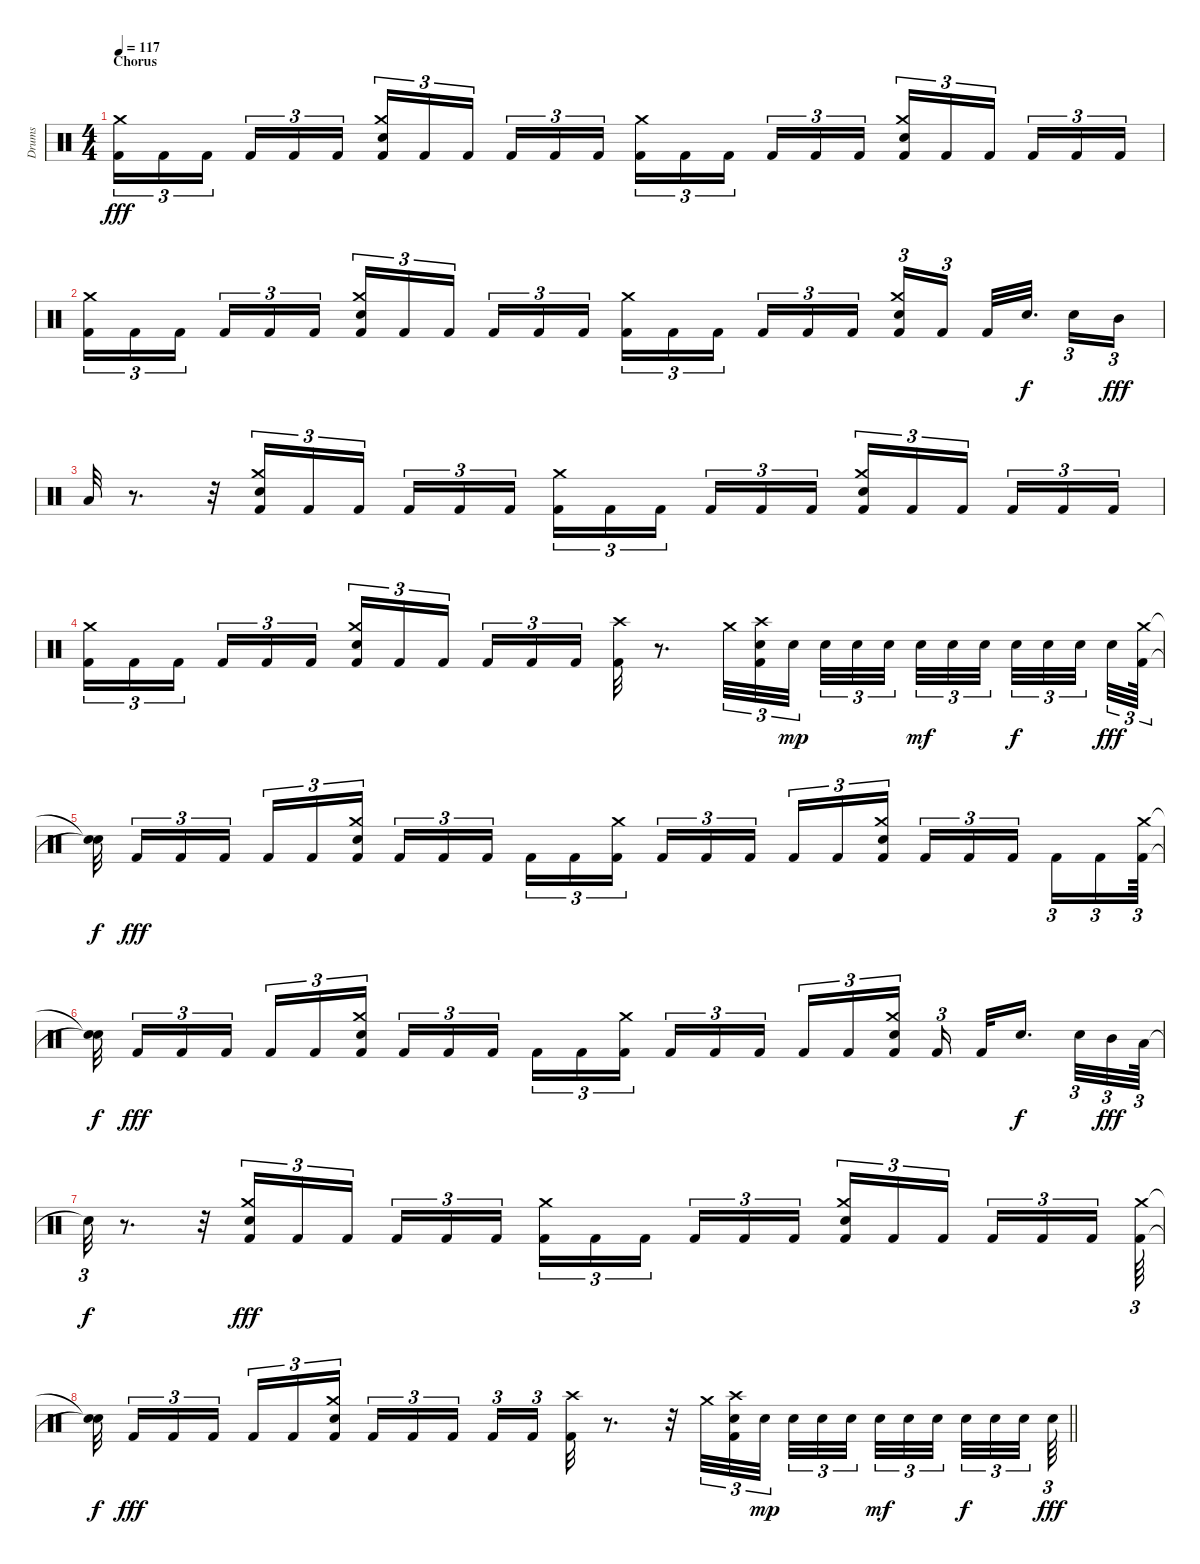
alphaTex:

\track ("Drums" "Drums") {instrument percussion}
\staff {score}
\articulation defaults
\ts (4 4)
\section ("" "Chorus")
\tempo 117
\clef neutral
\ks c
("Kick (hit) 2" "Crash medium (hit)").16{tu (3 2) dy fff} "Kick (hit) 2".16{tu (3 2)} "Kick (hit) 2".16{tu (3 2) beam splitsecondary} "Kick (hit) 2".16{tu (3 2)} "Kick (hit) 2".16{tu (3 2)} "Kick (hit) 2".16{tu (3 2)} ("Kick (hit) 2" "Crash medium (hit)" "Snare (hit) 2").16{tu (3 2)} "Kick (hit) 2".16{tu (3 2)} "Kick (hit) 2".16{tu (3 2) beam splitsecondary} "Kick (hit) 2".16{tu (3 2)} "Kick (hit) 2".16{tu (3 2)} "Kick (hit) 2".16{tu (3 2)} ("Kick (hit) 2" "Crash medium (hit)").16{tu (3 2)} "Kick (hit) 2".16{tu (3 2)} "Kick (hit) 2".16{tu (3 2) beam splitsecondary} "Kick (hit) 2".16{tu (3 2)} "Kick (hit) 2".16{tu (3 2)} "Kick (hit) 2".16{tu (3 2)} ("Kick (hit) 2" "Crash medium (hit)" "Snare (hit) 2").16{tu (3 2)} "Kick (hit) 2".16{tu (3 2)} "Kick (hit) 2".16{tu (3 2) beam splitsecondary} "Kick (hit) 2".16{tu (3 2)} "Kick (hit) 2".16{tu (3 2)} "Kick (hit) 2".16{tu (3 2)} |
("Kick (hit) 2" "Crash medium (hit)").16{tu (3 2)} "Kick (hit) 2".16{tu (3 2)} "Kick (hit) 2".16{tu (3 2) beam splitsecondary} "Kick (hit) 2".16{tu (3 2)} "Kick (hit) 2".16{tu (3 2)} "Kick (hit) 2".16{tu (3 2)} ("Kick (hit) 2" "Crash medium (hit)" "Snare (hit) 2").16{tu (3 2)} "Kick (hit) 2".16{tu (3 2)} "Kick (hit) 2".16{tu (3 2) beam splitsecondary} "Kick (hit) 2".16{tu (3 2)} "Kick (hit) 2".16{tu (3 2)} "Kick (hit) 2".16{tu (3 2)} ("Kick (hit) 2" "Crash medium (hit)").16{tu (3 2)} "Kick (hit) 2".16{tu (3 2)} "Kick (hit) 2".16{tu (3 2) beam splitsecondary} "Kick (hit) 2".16{tu (3 2)} "Kick (hit) 2".16{tu (3 2)} "Kick (hit) 2".16{tu (3 2)} ("Kick (hit) 2" "Crash medium (hit)" "Snare (hit) 2").16{tu (3 2)} "Kick (hit) 2".16{tu (3 2) beam splitsecondary} "Kick (hit) 2".32 "Snare (hit) 2".32{d dy f beam splitsecondary} "Snare (hit) 2".16{tu (3 2)} "Mid Tom (hit)".16{tu (3 2) dy fff} |
"Low Tom (hit)".32 r.8{d} r.32 ("Kick (hit) 2" "Crash medium (hit)" "Snare (hit) 2").16{tu (3 2)} "Kick (hit) 2".16{tu (3 2)} "Kick (hit) 2".16{tu (3 2) beam splitsecondary} "Kick (hit) 2".16{tu (3 2)} "Kick (hit) 2".16{tu (3 2)} "Kick (hit) 2".16{tu (3 2)} ("Kick (hit) 2" "Crash medium (hit)").16{tu (3 2)} "Kick (hit) 2".16{tu (3 2)} "Kick (hit) 2".16{tu (3 2) beam splitsecondary} "Kick (hit) 2".16{tu (3 2)} "Kick (hit) 2".16{tu (3 2)} "Kick (hit) 2".16{tu (3 2)} ("Kick (hit) 2" "Crash medium (hit)" "Snare (hit) 2").16{tu (3 2)} "Kick (hit) 2".16{tu (3 2)} "Kick (hit) 2".16{tu (3 2) beam splitsecondary} "Kick (hit) 2".16{tu (3 2)} "Kick (hit) 2".16{tu (3 2)} "Kick (hit) 2".16{tu (3 2)} |
("Kick (hit) 2" "Crash medium (hit)").16{tu (3 2)} "Kick (hit) 2".16{tu (3 2)} "Kick (hit) 2".16{tu (3 2) beam splitsecondary} "Kick (hit) 2".16{tu (3 2)} "Kick (hit) 2".16{tu (3 2)} "Kick (hit) 2".16{tu (3 2)} ("Kick (hit) 2" "Crash medium (hit)" "Snare (hit) 2").16{tu (3 2)} "Kick (hit) 2".16{tu (3 2)} "Kick (hit) 2".16{tu (3 2) beam splitsecondary} "Kick (hit) 2".16{tu (3 2)} "Kick (hit) 2".16{tu (3 2)} "Kick (hit) 2".16{tu (3 2)} ("Kick (hit) 2" "Crash high (hit)").32 r.8{d} "Crash medium (hit)".32{tu (3 2)} ("Kick (hit) 2" "Snare (hit) 2" "Crash high (hit)").32{tu (3 2)} "Snare (hit) 2".32{tu (3 2) dy mp beam splitsecondary} "Snare (hit) 2".32{tu (3 2)} "Snare (hit) 2".32{tu (3 2)} "Snare (hit) 2".32{tu (3 2) beam splitsecondary} "Snare (hit) 2".32{tu (3 2) dy mf} "Snare (hit) 2".32{tu (3 2)} "Snare (hit) 2".32{tu (3 2) beam splitsecondary} "Snare (hit) 2".32{tu (3 2) dy f} "Snare (hit) 2".32{tu (3 2)} "Snare (hit) 2".32{tu (3 2) beam splitsecondary} "Snare (hit) 2".32{tu (3 2) dy fff} ("Kick (hit) 2" "Crash medium (hit)").64{tu (3 2)} |
("Snare (hit)"{t} "Snare (hit)"{t}).32{dy f beam splitsecondary} "Kick (hit) 2".16{tu (3 2) dy fff} "Kick (hit) 2".16{tu (3 2)} "Kick (hit) 2".16{tu (3 2) beam splitsecondary} "Kick (hit) 2".16{tu (3 2)} "Kick (hit) 2".16{tu (3 2)} ("Kick (hit) 2" "Crash medium (hit)" "Snare (hit) 2").16{tu (3 2)} "Kick (hit) 2".16{tu (3 2)} "Kick (hit) 2".16{tu (3 2)} "Kick (hit) 2".16{tu (3 2) beam splitsecondary} "Kick (hit) 2".16{tu (3 2)} "Kick (hit) 2".16{tu (3 2)} ("Kick (hit) 2" "Crash medium (hit)").16{tu (3 2)} "Kick (hit) 2".16{tu (3 2)} "Kick (hit) 2".16{tu (3 2)} "Kick (hit) 2".16{tu (3 2) beam splitsecondary} "Kick (hit) 2".16{tu (3 2)} "Kick (hit) 2".16{tu (3 2)} ("Kick (hit) 2" "Crash medium (hit)" "Snare (hit) 2").16{tu (3 2)} "Kick (hit) 2".16{tu (3 2)} "Kick (hit) 2".16{tu (3 2)} "Kick (hit) 2".16{tu (3 2) beam splitsecondary} "Kick (hit) 2".16{tu (3 2)} "Kick (hit) 2".16{tu (3 2)} ("Kick (hit) 2" "Crash medium (hit)").64{tu (3 2)} |
("Snare (hit)"{t} "Snare (hit)"{t}).32{dy f beam splitsecondary} "Kick (hit) 2".16{tu (3 2) dy fff} "Kick (hit) 2".16{tu (3 2)} "Kick (hit) 2".16{tu (3 2) beam splitsecondary} "Kick (hit) 2".16{tu (3 2)} "Kick (hit) 2".16{tu (3 2)} ("Kick (hit) 2" "Crash medium (hit)" "Snare (hit) 2").16{tu (3 2)} "Kick (hit) 2".16{tu (3 2)} "Kick (hit) 2".16{tu (3 2)} "Kick (hit) 2".16{tu (3 2) beam splitsecondary} "Kick (hit) 2".16{tu (3 2)} "Kick (hit) 2".16{tu (3 2)} ("Kick (hit) 2" "Crash medium (hit)").16{tu (3 2)} "Kick (hit) 2".16{tu (3 2)} "Kick (hit) 2".16{tu (3 2)} "Kick (hit) 2".16{tu (3 2) beam splitsecondary} "Kick (hit) 2".16{tu (3 2)} "Kick (hit) 2".16{tu (3 2)} ("Kick (hit) 2" "Crash medium (hit)" "Snare (hit) 2").16{tu (3 2)} "Kick (hit) 2".16{tu (3 2) beam splitsecondary} "Kick (hit) 2".32 "Snare (hit) 2".16{d dy f beam splitsecondary} "Snare (hit) 2".32{tu (3 2)} "Mid Tom (hit)".32{tu (3 2) dy fff} "Low Tom (hit)".64{tu (3 2)} |
"Snare (hit)"{t}.32{tu (3 2) dy f} r.8{d} r.32 ("Kick (hit) 2" "Crash medium (hit)" "Snare (hit) 2").16{tu (3 2) dy fff} "Kick (hit) 2".16{tu (3 2)} "Kick (hit) 2".16{tu (3 2) beam splitsecondary} "Kick (hit) 2".16{tu (3 2)} "Kick (hit) 2".16{tu (3 2)} "Kick (hit) 2".16{tu (3 2) beam splitsecondary} ("Kick (hit) 2" "Crash medium (hit)").16{tu (3 2)} "Kick (hit) 2".16{tu (3 2)} "Kick (hit) 2".16{tu (3 2) beam splitsecondary} "Kick (hit) 2".16{tu (3 2)} "Kick (hit) 2".16{tu (3 2)} "Kick (hit) 2".16{tu (3 2) beam splitsecondary} ("Kick (hit) 2" "Crash medium (hit)" "Snare (hit) 2").16{tu (3 2)} "Kick (hit) 2".16{tu (3 2)} "Kick (hit) 2".16{tu (3 2) beam splitsecondary} "Kick (hit) 2".16{tu (3 2)} "Kick (hit) 2".16{tu (3 2)} "Kick (hit) 2".16{tu (3 2) beam splitsecondary} ("Kick (hit) 2" "Crash medium (hit)").64{tu (3 2)} |
\barLineRight lightlight
("Snare (hit)"{t} "Snare (hit)"{t}).32{dy f beam splitsecondary} "Kick (hit) 2".16{tu (3 2) dy fff} "Kick (hit) 2".16{tu (3 2)} "Kick (hit) 2".16{tu (3 2) beam splitsecondary} "Kick (hit) 2".16{tu (3 2)} "Kick (hit) 2".16{tu (3 2)} ("Kick (hit) 2" "Crash medium (hit)" "Snare (hit) 2").16{tu (3 2)} "Kick (hit) 2".16{tu (3 2)} "Kick (hit) 2".16{tu (3 2)} "Kick (hit) 2".16{tu (3 2) beam splitsecondary} "Kick (hit) 2".16{tu (3 2)} "Kick (hit) 2".16{tu (3 2) beam splitsecondary} ("Kick (hit) 2" "Crash high (hit)").32 r.8{d} r.32 "Crash medium (hit)".32{tu (3 2)} ("Kick (hit) 2" "Snare (hit) 2" "Crash high (hit)").32{tu (3 2)} "Snare (hit) 2".32{tu (3 2) dy mp beam splitsecondary} "Snare (hit) 2".32{tu (3 2)} "Snare (hit) 2".32{tu (3 2)} "Snare (hit) 2".32{tu (3 2) beam splitsecondary} "Snare (hit) 2".32{tu (3 2) dy mf} "Snare (hit) 2".32{tu (3 2)} "Snare (hit) 2".32{tu (3 2) beam splitsecondary} "Snare (hit) 2".32{tu (3 2) dy f} "Snare (hit) 2".32{tu (3 2)} "Snare (hit) 2".32{tu (3 2) beam splitsecondary} "Snare (hit) 2".64{tu (3 2) dy fff}
